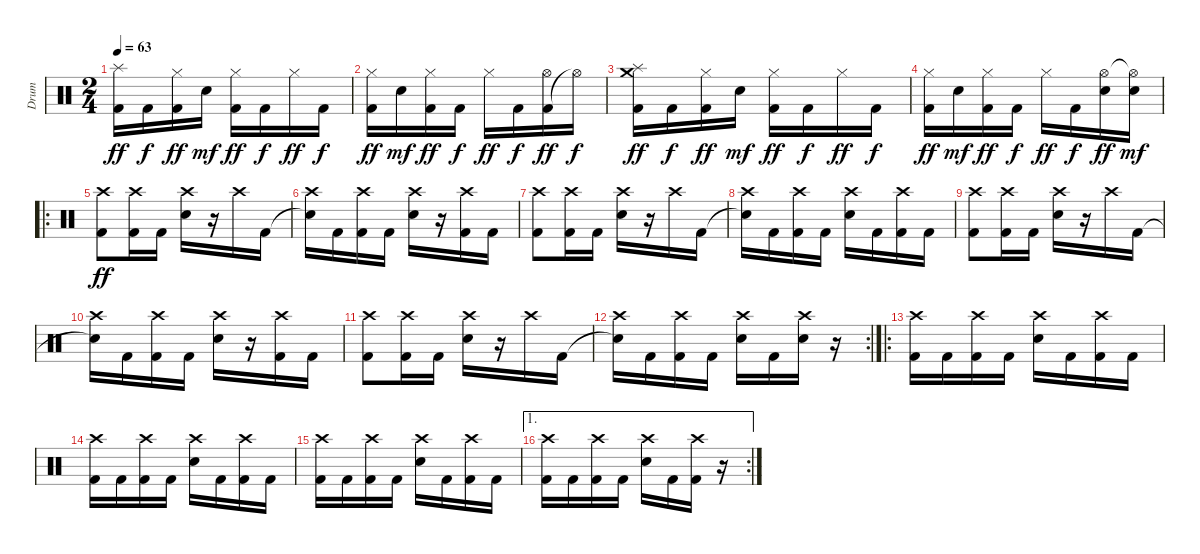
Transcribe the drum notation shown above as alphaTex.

\track ("Drum" "Drum") {instrument percussion}
\staff {score}
\articulation defaults
\ts (2 4)
\tempo 63
\clef neutral
\ks c
("Kick (hit) 2" "Splash (hit)").16{dy ff} "Kick (hit) 2".16{dy f} ("Kick (hit) 2" "Hi-Hat (closed)").16{dy ff} "Snare (hit) 2".16{dy mf} ("Kick (hit) 2" "Hi-Hat (closed)").16{dy ff} "Kick (hit) 2".16{dy f} "Hi-Hat (closed)".16{dy ff} "Kick (hit) 2".16{dy f} |
("Kick (hit) 2" "Hi-Hat (closed)").16{dy ff} "Snare (hit) 2".16{dy mf} ("Kick (hit) 2" "Hi-Hat (closed)").16{dy ff} "Kick (hit) 2".16{dy f} "Hi-Hat (closed)".16{dy ff} "Kick (hit) 2".16{dy f} ("Kick (hit) 2" "Hi-Hat (open)").16{dy ff} "Hi-Hat (open)"{t}.16{dy f} |
("Kick (hit) 2" "Splash (hit)" "Crash medium (hit)").16{dy ff} "Kick (hit) 2".16{dy f} ("Kick (hit) 2" "Hi-Hat (closed)").16{dy ff} "Snare (hit) 2".16{dy mf} ("Kick (hit) 2" "Hi-Hat (closed)").16{dy ff} "Kick (hit) 2".16{dy f} "Hi-Hat (closed)".16{dy ff} "Kick (hit) 2".16{dy f} |
("Kick (hit) 2" "Hi-Hat (closed)").16{dy ff} "Snare (hit) 2".16{dy mf} ("Kick (hit) 2" "Hi-Hat (closed)").16{dy ff} "Kick (hit) 2".16{dy f} "Hi-Hat (closed)".16{dy ff} "Kick (hit) 2".16{dy f} ("Snare (hit) 2" "Hi-Hat (open)").16{dy ff} ("Snare (hit) 2" "Hi-Hat (open)"{t}).16{dy mf} |
\ro
("Kick (hit) 2" "Crash high (hit)").8{dy ff} ("Kick (hit) 2" "Crash high (hit)").16 "Kick (hit) 2".16 ("Snare (hit) 2" "Crash high (hit)").16 r.16 "Crash high (hit)".16 "Kick (hit) 2".16 |
("Snare (hit)"{t} "Crash high (hit)").16 "Kick (hit) 2".16 ("Kick (hit) 2" "Crash high (hit)").16 "Kick (hit) 2".16 ("Snare (hit) 2" "Crash high (hit)").16 r.16 ("Kick (hit) 2" "Crash high (hit)").16 "Kick (hit) 2".16 |
("Kick (hit) 2" "Crash high (hit)").8 ("Kick (hit) 2" "Crash high (hit)").16 "Kick (hit) 2".16 ("Snare (hit) 2" "Crash high (hit)").16 r.16 "Crash high (hit)".16 "Kick (hit) 2".16 |
("Snare (hit)"{t} "Crash high (hit)").16 "Kick (hit) 2".16 ("Kick (hit) 2" "Crash high (hit)").16 "Kick (hit) 2".16 ("Snare (hit) 2" "Crash high (hit)").16 "Kick (hit) 2".16 ("Kick (hit) 2" "Crash high (hit)").16 "Kick (hit) 2".16 |
("Kick (hit) 2" "Crash high (hit)").8 ("Kick (hit) 2" "Crash high (hit)").16 "Kick (hit) 2".16 ("Snare (hit) 2" "Crash high (hit)").16 r.16 "Crash high (hit)".16 "Kick (hit) 2".16 |
("Snare (hit)"{t} "Crash high (hit)").16 "Kick (hit) 2".16 ("Kick (hit) 2" "Crash high (hit)").16 "Kick (hit) 2".16 ("Snare (hit) 2" "Crash high (hit)").16 r.16 ("Kick (hit) 2" "Crash high (hit)").16 "Kick (hit) 2".16 |
("Kick (hit) 2" "Crash high (hit)").8 ("Kick (hit) 2" "Crash high (hit)").16 "Kick (hit) 2".16 ("Snare (hit) 2" "Crash high (hit)").16 r.16 "Crash high (hit)".16 "Kick (hit) 2".16 |
\rc 2
("Snare (hit)"{t} "Crash high (hit)").16 "Kick (hit) 2".16 ("Kick (hit) 2" "Crash high (hit)").16 "Kick (hit) 2".16 ("Snare (hit) 2" "Crash high (hit)").16 "Kick (hit) 2".16 ("Snare (hit) 2" "Crash high (hit)").16 r.16 |
\ro
("Kick (hit) 2" "Crash high (hit)").16 "Kick (hit) 2".16 ("Kick (hit) 2" "Crash high (hit)").16 "Kick (hit) 2".16 ("Snare (hit) 2" "Crash high (hit)").16 "Kick (hit) 2".16 ("Kick (hit) 2" "Crash high (hit)").16 "Kick (hit) 2".16 |
("Kick (hit) 2" "Crash high (hit)").16 "Kick (hit) 2".16 ("Kick (hit) 2" "Crash high (hit)").16 "Kick (hit) 2".16 ("Snare (hit) 2" "Crash high (hit)").16 "Kick (hit) 2".16 ("Kick (hit) 2" "Crash high (hit)").16 "Kick (hit) 2".16 |
("Kick (hit) 2" "Crash high (hit)").16 "Kick (hit) 2".16 ("Kick (hit) 2" "Crash high (hit)").16 "Kick (hit) 2".16 ("Snare (hit) 2" "Crash high (hit)").16 "Kick (hit) 2".16 ("Kick (hit) 2" "Crash high (hit)").16 "Kick (hit) 2".16 |
\ae 1
\rc 2
("Kick (hit) 2" "Crash high (hit)").16 "Kick (hit) 2".16 ("Kick (hit) 2" "Crash high (hit)").16 "Kick (hit) 2".16 ("Snare (hit) 2" "Crash high (hit)").16 "Kick (hit) 2".16 ("Kick (hit) 2" "Crash high (hit)").16 r.16
